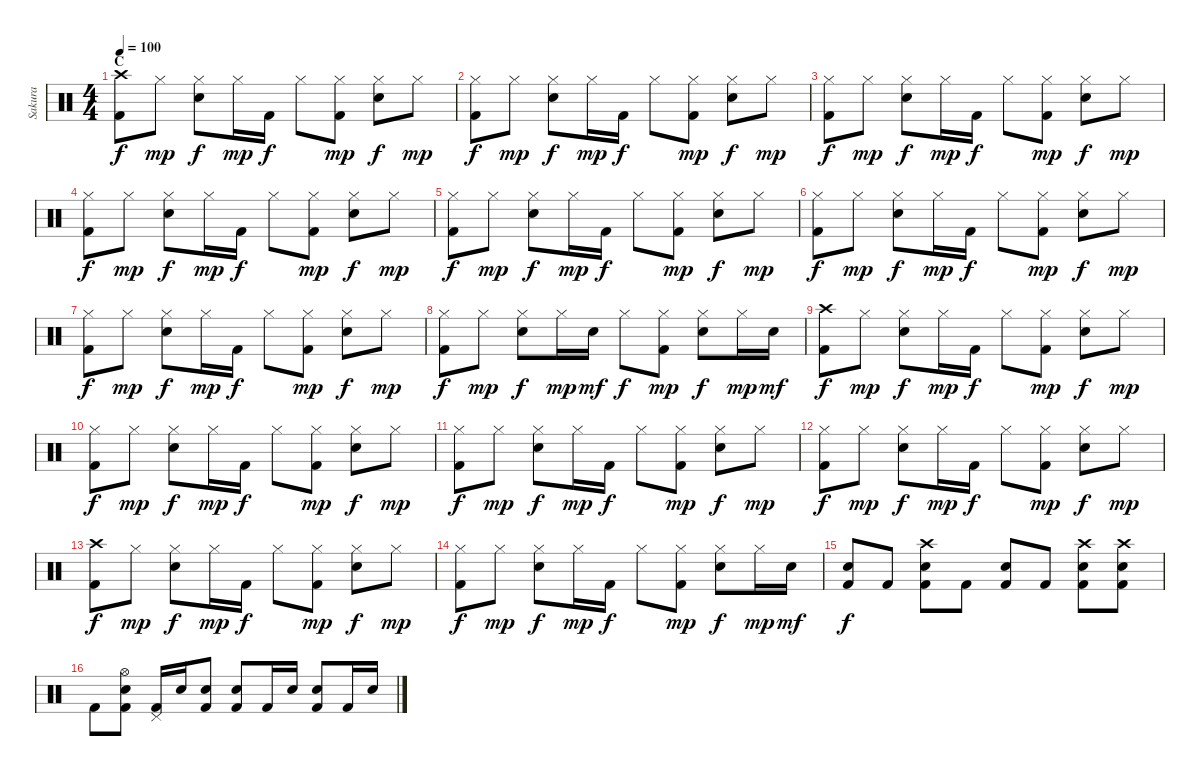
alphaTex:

\track ("Sakura" "Sakura") {instrument percussion}
\staff {score}
\articulation defaults
\ts (4 4)
\section ("" "C")
\tempo 100
\clef neutral
\ks c
("Crash high (hit)" "Kick (hit) 2").8{dy f} "Hi-Hat (closed)".8{dy mp} ("Hi-Hat (closed)" "Electric Snare (hit)").8{dy f} "Hi-Hat (closed)".16{dy mp} "Kick (hit) 2".16{dy f} "Hi-Hat (closed)".8 ("Hi-Hat (closed)" "Kick (hit) 2").8{dy mp} ("Hi-Hat (closed)" "Electric Snare (hit)").8{dy f} "Hi-Hat (closed)".8{dy mp} |
("Hi-Hat (closed)" "Kick (hit) 2").8{dy f} "Hi-Hat (closed)".8{dy mp} ("Hi-Hat (closed)" "Electric Snare (hit)").8{dy f} "Hi-Hat (closed)".16{dy mp} "Kick (hit) 2".16{dy f} "Hi-Hat (closed)".8 ("Hi-Hat (closed)" "Kick (hit) 2").8{dy mp} ("Hi-Hat (closed)" "Electric Snare (hit)").8{dy f} "Hi-Hat (closed)".8{dy mp} |
("Hi-Hat (closed)" "Kick (hit) 2").8{dy f} "Hi-Hat (closed)".8{dy mp} ("Hi-Hat (closed)" "Electric Snare (hit)").8{dy f} "Hi-Hat (closed)".16{dy mp} "Kick (hit) 2".16{dy f} "Hi-Hat (closed)".8 ("Hi-Hat (closed)" "Kick (hit) 2").8{dy mp} ("Hi-Hat (closed)" "Electric Snare (hit)").8{dy f} "Hi-Hat (closed)".8{dy mp} |
("Hi-Hat (closed)" "Kick (hit) 2").8{dy f} "Hi-Hat (closed)".8{dy mp} ("Hi-Hat (closed)" "Electric Snare (hit)").8{dy f} "Hi-Hat (closed)".16{dy mp} "Kick (hit) 2".16{dy f} "Hi-Hat (closed)".8 ("Hi-Hat (closed)" "Kick (hit) 2").8{dy mp} ("Hi-Hat (closed)" "Electric Snare (hit)").8{dy f} "Hi-Hat (closed)".8{dy mp} |
("Hi-Hat (closed)" "Kick (hit) 2").8{dy f} "Hi-Hat (closed)".8{dy mp} ("Hi-Hat (closed)" "Electric Snare (hit)").8{dy f} "Hi-Hat (closed)".16{dy mp} "Kick (hit) 2".16{dy f} "Hi-Hat (closed)".8 ("Hi-Hat (closed)" "Kick (hit) 2").8{dy mp} ("Hi-Hat (closed)" "Electric Snare (hit)").8{dy f} "Hi-Hat (closed)".8{dy mp} |
("Hi-Hat (closed)" "Kick (hit) 2").8{dy f} "Hi-Hat (closed)".8{dy mp} ("Hi-Hat (closed)" "Electric Snare (hit)").8{dy f} "Hi-Hat (closed)".16{dy mp} "Kick (hit) 2".16{dy f} "Hi-Hat (closed)".8 ("Hi-Hat (closed)" "Kick (hit) 2").8{dy mp} ("Hi-Hat (closed)" "Electric Snare (hit)").8{dy f} "Hi-Hat (closed)".8{dy mp} |
("Hi-Hat (closed)" "Kick (hit) 2").8{dy f} "Hi-Hat (closed)".8{dy mp} ("Hi-Hat (closed)" "Electric Snare (hit)").8{dy f} "Hi-Hat (closed)".16{dy mp} "Kick (hit) 2".16{dy f} "Hi-Hat (closed)".8 ("Hi-Hat (closed)" "Kick (hit) 2").8{dy mp} ("Hi-Hat (closed)" "Electric Snare (hit)").8{dy f} "Hi-Hat (closed)".8{dy mp} |
("Hi-Hat (closed)" "Kick (hit) 2").8{dy f} "Hi-Hat (closed)".8{dy mp} ("Hi-Hat (closed)" "Electric Snare (hit)").8{dy f} "Hi-Hat (closed)".16{dy mp} "Electric Snare (hit)".16{dy mf} "Hi-Hat (closed)".8{dy f} ("Hi-Hat (closed)" "Kick (hit) 2").8{dy mp} ("Hi-Hat (closed)" "Electric Snare (hit)").8{dy f} "Hi-Hat (closed)".16{dy mp} "Electric Snare (hit)".16{dy mf} |
("Crash high (hit)" "Kick (hit) 2").8{dy f} "Hi-Hat (closed)".8{dy mp} ("Hi-Hat (closed)" "Electric Snare (hit)").8{dy f} "Hi-Hat (closed)".16{dy mp} "Kick (hit) 2".16{dy f} "Hi-Hat (closed)".8 ("Hi-Hat (closed)" "Kick (hit) 2").8{dy mp} ("Hi-Hat (closed)" "Electric Snare (hit)").8{dy f} "Hi-Hat (closed)".8{dy mp} |
("Hi-Hat (closed)" "Kick (hit) 2").8{dy f} "Hi-Hat (closed)".8{dy mp} ("Hi-Hat (closed)" "Electric Snare (hit)").8{dy f} "Hi-Hat (closed)".16{dy mp} "Kick (hit) 2".16{dy f} "Hi-Hat (closed)".8 ("Hi-Hat (closed)" "Kick (hit) 2").8{dy mp} ("Hi-Hat (closed)" "Electric Snare (hit)").8{dy f} "Hi-Hat (closed)".8{dy mp} |
("Hi-Hat (closed)" "Kick (hit) 2").8{dy f} "Hi-Hat (closed)".8{dy mp} ("Hi-Hat (closed)" "Electric Snare (hit)").8{dy f} "Hi-Hat (closed)".16{dy mp} "Kick (hit) 2".16{dy f} "Hi-Hat (closed)".8 ("Hi-Hat (closed)" "Kick (hit) 2").8{dy mp} ("Hi-Hat (closed)" "Electric Snare (hit)").8{dy f} "Hi-Hat (closed)".8{dy mp} |
("Hi-Hat (closed)" "Kick (hit) 2").8{dy f} "Hi-Hat (closed)".8{dy mp} ("Hi-Hat (closed)" "Electric Snare (hit)").8{dy f} "Hi-Hat (closed)".16{dy mp} "Kick (hit) 2".16{dy f} "Hi-Hat (closed)".8 ("Hi-Hat (closed)" "Kick (hit) 2").8{dy mp} ("Hi-Hat (closed)" "Electric Snare (hit)").8{dy f} "Hi-Hat (closed)".8{dy mp} |
("Crash high (hit)" "Kick (hit) 2").8{dy f} "Hi-Hat (closed)".8{dy mp} ("Hi-Hat (closed)" "Electric Snare (hit)").8{dy f} "Hi-Hat (closed)".16{dy mp} "Kick (hit) 2".16{dy f} "Hi-Hat (closed)".8 ("Hi-Hat (closed)" "Kick (hit) 2").8{dy mp} ("Hi-Hat (closed)" "Electric Snare (hit)").8{dy f} "Hi-Hat (closed)".8{dy mp} |
("Hi-Hat (closed)" "Kick (hit) 2").8{dy f} "Hi-Hat (closed)".8{dy mp} ("Hi-Hat (closed)" "Electric Snare (hit)").8{dy f} "Hi-Hat (closed)".16{dy mp} "Kick (hit) 2".16{dy f} "Hi-Hat (closed)".8 ("Hi-Hat (closed)" "Kick (hit) 2").8{dy mp} ("Hi-Hat (closed)" "Electric Snare (hit)").8{dy f} "Hi-Hat (closed)".16{dy mp} "Electric Snare (hit)".16{dy mf} |
("Electric Snare (hit)" "Kick (hit) 2").8{dy f} "Kick (hit) 2".8 ("Crash high (hit)" "Electric Snare (hit)" "Kick (hit) 2").8 "Kick (hit) 2".8 ("Electric Snare (hit)" "Kick (hit) 2").8 "Kick (hit) 2".8 ("Crash high (hit)" "Electric Snare (hit)" "Kick (hit) 2").8 ("Crash high (hit)" "Electric Snare (hit)" "Kick (hit) 2").8 |
"Kick (hit) 2".8 ("Hi-Hat (open)" "Electric Snare (hit)" "Kick (hit) 2").8 ("Pedal Hi-Hat (hit)" "Kick (hit) 2").16 "Electric Snare (hit)".16 ("Electric Snare (hit)" "Kick (hit) 2").8 ("Electric Snare (hit)" "Kick (hit) 2").8 "Kick (hit) 2".16 "Electric Snare (hit)".16 ("Electric Snare (hit)" "Kick (hit) 2").8 "Kick (hit) 2".16 "Electric Snare (hit)".16
